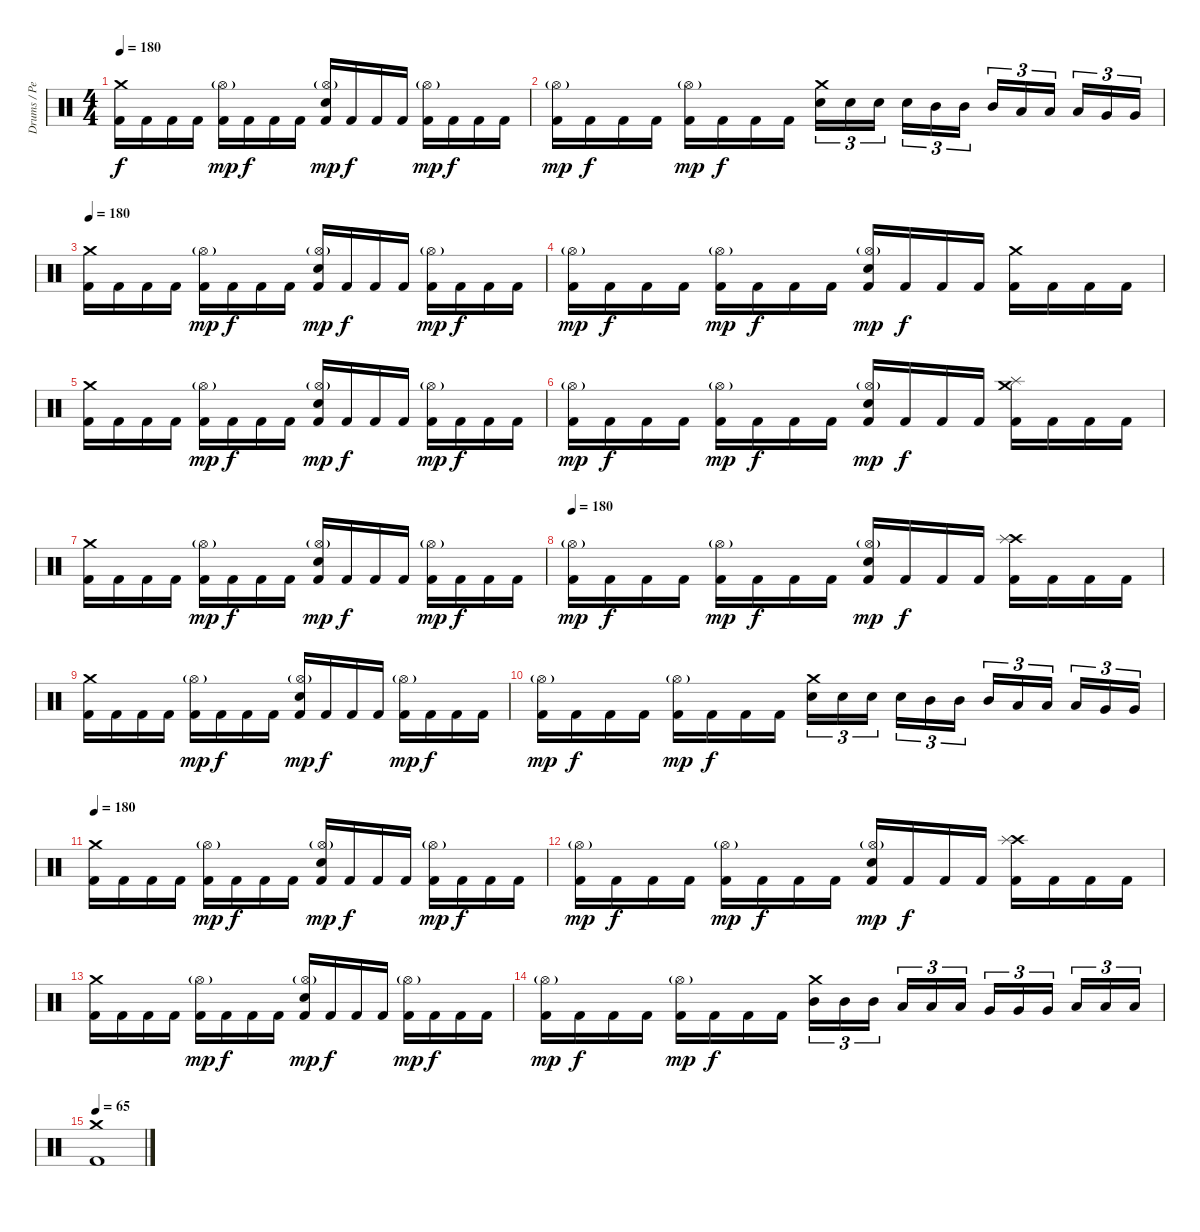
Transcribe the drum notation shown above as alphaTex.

\track ("Drums / Percussion" "Drums / Pe") {instrument percussion}
\staff {score}
\articulation defaults
\ts (4 4)
\tempo 180
\clef neutral
\ks c
("Crash medium (hit)" "Kick (hit) 2").16{dy f} "Kick (hit) 2".16 "Kick (hit) 2".16 "Kick (hit) 2".16 ("Hi-Hat (open)"{g} "Kick (hit) 2").16{dy mp} "Kick (hit) 2".16{dy f} "Kick (hit) 2".16 "Kick (hit) 2".16 ("Hi-Hat (open)"{g} "Electric Snare (hit)" "Kick (hit) 2").16{dy mp} "Kick (hit) 2".16{dy f} "Kick (hit) 2".16 "Kick (hit) 2".16 ("Hi-Hat (open)"{g} "Kick (hit) 2").16{dy mp} "Kick (hit) 2".16{dy f} "Kick (hit) 2".16 "Kick (hit) 2".16 |
("Hi-Hat (open)"{g} "Kick (hit) 2").16{dy mp} "Kick (hit) 2".16{dy f} "Kick (hit) 2".16 "Kick (hit) 2".16 ("Hi-Hat (open)"{g} "Kick (hit) 2").16{dy mp} "Kick (hit) 2".16{dy f} "Kick (hit) 2".16 "Kick (hit) 2".16 ("Crash medium (hit)" "Electric Snare (hit)").16{tu (3 2)} "Electric Snare (hit)".16{tu (3 2)} "Electric Snare (hit)".16{tu (3 2)} "Electric Snare (hit)".16{tu (3 2)} "Mid Tom (hit)".16{tu (3 2)} "Mid Tom (hit)".16{tu (3 2)} "Mid Tom (hit)".16{tu (3 2)} "Low Tom (hit)".16{tu (3 2)} "Low Tom (hit)".16{tu (3 2)} "Low Tom (hit)".16{tu (3 2)} "Very Low Tom (hit)".16{tu (3 2)} "Very Low Tom (hit)".16{tu (3 2)} |
\tempo 180
("Crash medium (hit)" "Kick (hit) 2").16 "Kick (hit) 2".16 "Kick (hit) 2".16 "Kick (hit) 2".16 ("Hi-Hat (open)"{g} "Kick (hit) 2").16{dy mp} "Kick (hit) 2".16{dy f} "Kick (hit) 2".16 "Kick (hit) 2".16 ("Hi-Hat (open)"{g} "Electric Snare (hit)" "Kick (hit) 2").16{dy mp} "Kick (hit) 2".16{dy f} "Kick (hit) 2".16 "Kick (hit) 2".16 ("Hi-Hat (open)"{g} "Kick (hit) 2").16{dy mp} "Kick (hit) 2".16{dy f} "Kick (hit) 2".16 "Kick (hit) 2".16 |
("Hi-Hat (open)"{g} "Kick (hit) 2").16{dy mp} "Kick (hit) 2".16{dy f} "Kick (hit) 2".16 "Kick (hit) 2".16 ("Hi-Hat (open)"{g} "Kick (hit) 2").16{dy mp} "Kick (hit) 2".16{dy f} "Kick (hit) 2".16 "Kick (hit) 2".16 ("Hi-Hat (open)"{g} "Electric Snare (hit)" "Kick (hit) 2").16{dy mp} "Kick (hit) 2".16{dy f} "Kick (hit) 2".16 "Kick (hit) 2".16 ("Crash medium (hit)" "Kick (hit) 2").16 "Kick (hit) 2".16 "Kick (hit) 2".16 "Kick (hit) 2".16 |
("Crash medium (hit)" "Kick (hit) 2").16 "Kick (hit) 2".16 "Kick (hit) 2".16 "Kick (hit) 2".16 ("Hi-Hat (open)"{g} "Kick (hit) 2").16{dy mp} "Kick (hit) 2".16{dy f} "Kick (hit) 2".16 "Kick (hit) 2".16 ("Hi-Hat (open)"{g} "Electric Snare (hit)" "Kick (hit) 2").16{dy mp} "Kick (hit) 2".16{dy f} "Kick (hit) 2".16 "Kick (hit) 2".16 ("Hi-Hat (open)"{g} "Kick (hit) 2").16{dy mp} "Kick (hit) 2".16{dy f} "Kick (hit) 2".16 "Kick (hit) 2".16 |
("Hi-Hat (open)"{g} "Kick (hit) 2").16{dy mp} "Kick (hit) 2".16{dy f} "Kick (hit) 2".16 "Kick (hit) 2".16 ("Hi-Hat (open)"{g} "Kick (hit) 2").16{dy mp} "Kick (hit) 2".16{dy f} "Kick (hit) 2".16 "Kick (hit) 2".16 ("Hi-Hat (open)"{g} "Electric Snare (hit)" "Kick (hit) 2").16{dy mp} "Kick (hit) 2".16{dy f} "Kick (hit) 2".16 "Kick (hit) 2".16 ("Crash medium (hit)" "Splash (hit)" "Kick (hit) 2").16 "Kick (hit) 2".16 "Kick (hit) 2".16 "Kick (hit) 2".16 |
("Crash medium (hit)" "Kick (hit) 2").16 "Kick (hit) 2".16 "Kick (hit) 2".16 "Kick (hit) 2".16 ("Hi-Hat (open)"{g} "Kick (hit) 2").16{dy mp} "Kick (hit) 2".16{dy f} "Kick (hit) 2".16 "Kick (hit) 2".16 ("Hi-Hat (open)"{g} "Electric Snare (hit)" "Kick (hit) 2").16{dy mp} "Kick (hit) 2".16{dy f} "Kick (hit) 2".16 "Kick (hit) 2".16 ("Hi-Hat (open)"{g} "Kick (hit) 2").16{dy mp} "Kick (hit) 2".16{dy f} "Kick (hit) 2".16 "Kick (hit) 2".16 |
\tempo 180
("Hi-Hat (open)"{g} "Kick (hit) 2").16{dy mp} "Kick (hit) 2".16{dy f} "Kick (hit) 2".16 "Kick (hit) 2".16 ("Hi-Hat (open)"{g} "Kick (hit) 2").16{dy mp} "Kick (hit) 2".16{dy f} "Kick (hit) 2".16 "Kick (hit) 2".16 ("Hi-Hat (open)"{g} "Electric Snare (hit)" "Kick (hit) 2").16{dy mp} "Kick (hit) 2".16{dy f} "Kick (hit) 2".16 "Kick (hit) 2".16 ("Crash high (hit)" "Splash (hit)" "Kick (hit) 2").16 "Kick (hit) 2".16 "Kick (hit) 2".16 "Kick (hit) 2".16 |
("Crash medium (hit)" "Kick (hit) 2").16 "Kick (hit) 2".16 "Kick (hit) 2".16 "Kick (hit) 2".16 ("Hi-Hat (open)"{g} "Kick (hit) 2").16{dy mp} "Kick (hit) 2".16{dy f} "Kick (hit) 2".16 "Kick (hit) 2".16 ("Hi-Hat (open)"{g} "Electric Snare (hit)" "Kick (hit) 2").16{dy mp} "Kick (hit) 2".16{dy f} "Kick (hit) 2".16 "Kick (hit) 2".16 ("Hi-Hat (open)"{g} "Kick (hit) 2").16{dy mp} "Kick (hit) 2".16{dy f} "Kick (hit) 2".16 "Kick (hit) 2".16 |
("Hi-Hat (open)"{g} "Kick (hit) 2").16{dy mp} "Kick (hit) 2".16{dy f} "Kick (hit) 2".16 "Kick (hit) 2".16 ("Hi-Hat (open)"{g} "Kick (hit) 2").16{dy mp} "Kick (hit) 2".16{dy f} "Kick (hit) 2".16 "Kick (hit) 2".16 ("Crash medium (hit)" "Electric Snare (hit)").16{tu (3 2)} "Electric Snare (hit)".16{tu (3 2)} "Electric Snare (hit)".16{tu (3 2)} "Electric Snare (hit)".16{tu (3 2)} "Mid Tom (hit)".16{tu (3 2)} "Mid Tom (hit)".16{tu (3 2)} "Mid Tom (hit)".16{tu (3 2)} "Low Tom (hit)".16{tu (3 2)} "Low Tom (hit)".16{tu (3 2)} "Low Tom (hit)".16{tu (3 2)} "Very Low Tom (hit)".16{tu (3 2)} "Very Low Tom (hit)".16{tu (3 2)} |
\tempo 180
("Crash medium (hit)" "Kick (hit) 2").16 "Kick (hit) 2".16 "Kick (hit) 2".16 "Kick (hit) 2".16 ("Hi-Hat (open)"{g} "Kick (hit) 2").16{dy mp} "Kick (hit) 2".16{dy f} "Kick (hit) 2".16 "Kick (hit) 2".16 ("Hi-Hat (open)"{g} "Electric Snare (hit)" "Kick (hit) 2").16{dy mp} "Kick (hit) 2".16{dy f} "Kick (hit) 2".16 "Kick (hit) 2".16 ("Hi-Hat (open)"{g} "Kick (hit) 2").16{dy mp} "Kick (hit) 2".16{dy f} "Kick (hit) 2".16 "Kick (hit) 2".16 |
("Hi-Hat (open)"{g} "Kick (hit) 2").16{dy mp} "Kick (hit) 2".16{dy f} "Kick (hit) 2".16 "Kick (hit) 2".16 ("Hi-Hat (open)"{g} "Kick (hit) 2").16{dy mp} "Kick (hit) 2".16{dy f} "Kick (hit) 2".16 "Kick (hit) 2".16 ("Hi-Hat (open)"{g} "Electric Snare (hit)" "Kick (hit) 2").16{dy mp} "Kick (hit) 2".16{dy f} "Kick (hit) 2".16 "Kick (hit) 2".16 ("Crash high (hit)" "Splash (hit)" "Kick (hit) 2").16 "Kick (hit) 2".16 "Kick (hit) 2".16 "Kick (hit) 2".16 |
("Crash medium (hit)" "Kick (hit) 2").16 "Kick (hit) 2".16 "Kick (hit) 2".16 "Kick (hit) 2".16 ("Hi-Hat (open)"{g} "Kick (hit) 2").16{dy mp} "Kick (hit) 2".16{dy f} "Kick (hit) 2".16 "Kick (hit) 2".16 ("Hi-Hat (open)"{g} "Electric Snare (hit)" "Kick (hit) 2").16{dy mp} "Kick (hit) 2".16{dy f} "Kick (hit) 2".16 "Kick (hit) 2".16 ("Hi-Hat (open)"{g} "Kick (hit) 2").16{dy mp} "Kick (hit) 2".16{dy f} "Kick (hit) 2".16 "Kick (hit) 2".16 |
("Hi-Hat (open)"{g} "Kick (hit) 2").16{dy mp} "Kick (hit) 2".16{dy f} "Kick (hit) 2".16 "Kick (hit) 2".16 ("Hi-Hat (open)"{g} "Kick (hit) 2").16{dy mp} "Kick (hit) 2".16{dy f} "Kick (hit) 2".16 "Kick (hit) 2".16 ("Crash medium (hit)" "Mid Tom (hit)").16{tu (3 2)} "Mid Tom (hit)".16{tu (3 2)} "Mid Tom (hit)".16{tu (3 2)} "Low Tom (hit)".16{tu (3 2)} "Low Tom (hit)".16{tu (3 2)} "Low Tom (hit)".16{tu (3 2)} "Very Low Tom (hit)".16{tu (3 2)} "Very Low Tom (hit)".16{tu (3 2)} "Very Low Tom (hit)".16{tu (3 2)} "Low Floor Tom (hit)".16{tu (3 2)} "Low Floor Tom (hit)".16{tu (3 2)} "Low Floor Tom (hit)".16{tu (3 2)} |
\tempo 65
("Crash medium (hit)" "Kick (hit) 2").1
